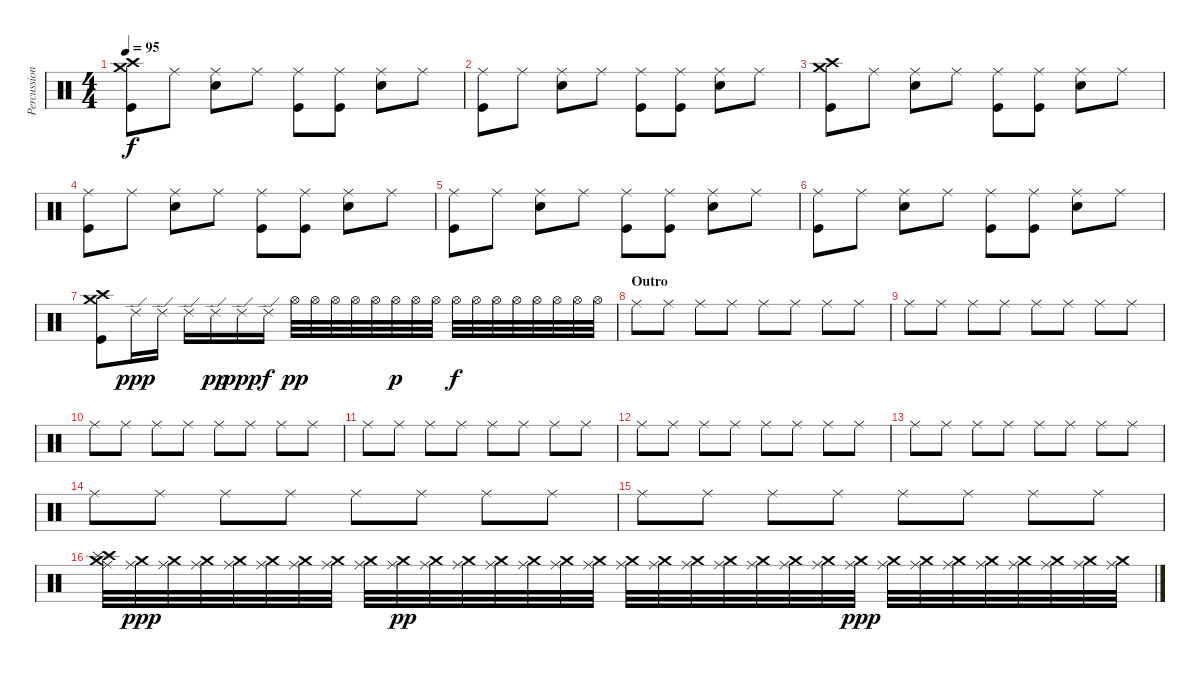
\track ("Percussion" "Percussion") {instrument percussion}
\staff {score}
\articulation defaults
\ts (4 4)
\tempo 95
\clef neutral
\ks c
("Crash high (hit)" "Crash medium (hit)" "Kick (hit)").8{dy f} "Ride (middle)".8 ("Ride (middle)" "Electric Snare (hit)").8 "Ride (middle)".8 ("Ride (middle)" "Kick (hit)").8 ("Ride (middle)" "Kick (hit)").8 ("Ride (middle)" "Electric Snare (hit)").8 "Ride (middle)".8 |
("Ride (middle)" "Kick (hit)").8 "Ride (middle)".8 ("Ride (middle)" "Electric Snare (hit)").8 "Ride (middle)".8 ("Ride (middle)" "Kick (hit)").8 ("Ride (middle)" "Kick (hit)").8 ("Ride (middle)" "Electric Snare (hit)").8 "Ride (middle)".8 |
("Crash high (hit)" "Crash medium (hit)" "Kick (hit)").8 "Ride (middle)".8 ("Ride (middle)" "Electric Snare (hit)").8 "Ride (middle)".8 ("Ride (middle)" "Kick (hit)").8 ("Ride (middle)" "Kick (hit)").8 ("Ride (middle)" "Electric Snare (hit)").8 "Ride (middle)".8 |
("Ride (middle)" "Kick (hit)").8 "Ride (middle)".8 ("Ride (middle)" "Electric Snare (hit)").8 "Ride (middle)".8 ("Ride (middle)" "Kick (hit)").8 ("Ride (middle)" "Kick (hit)").8 ("Ride (middle)" "Electric Snare (hit)").8 "Ride (middle)".8 |
("Ride (middle)" "Kick (hit)").8 "Ride (middle)".8 ("Ride (middle)" "Electric Snare (hit)").8 "Ride (middle)".8 ("Ride (middle)" "Kick (hit)").8 ("Ride (middle)" "Kick (hit)").8 ("Ride (middle)" "Electric Snare (hit)").8 "Ride (middle)".8 |
("Ride (middle)" "Kick (hit)").8 "Ride (middle)".8 ("Ride (middle)" "Electric Snare (hit)").8 "Ride (middle)".8 ("Ride (middle)" "Kick (hit)").8 ("Ride (middle)" "Kick (hit)").8 ("Ride (middle)" "Electric Snare (hit)").8 "Ride (middle)".8 |
("Crash high (hit)" "Crash medium (hit)" "Kick (hit)").8 "Ride (edge) 2".16{dy ppp} "Ride (edge) 2".16 "Ride (edge) 2".16 "Ride (edge) 2".16{dy pp} "Ride (edge) 2".16{dy ppp} "Ride (edge) 2".16{dy f} "Hi-Hat (open)".32{dy pp} "Hi-Hat (open)".32 "Hi-Hat (open)".32 "Hi-Hat (open)".32 "Hi-Hat (open)".32 "Hi-Hat (open)".32{dy p} "Hi-Hat (open)".32 "Hi-Hat (open)".32 "Hi-Hat (open)".32{dy f} "Hi-Hat (open)".32 "Hi-Hat (open)".32 "Hi-Hat (open)".32 "Hi-Hat (open)".32 "Hi-Hat (open)".32 "Hi-Hat (open)".32 "Hi-Hat (open)".32 |
\section ("" "Outro")
"Ride (middle)".8 "Ride (middle)".8 "Ride (middle)".8 "Ride (middle)".8 "Ride (middle)".8 "Ride (middle)".8 "Ride (middle)".8 "Ride (middle)".8 |
"Ride (middle)".8 "Ride (middle)".8 "Ride (middle)".8 "Ride (middle)".8 "Ride (middle)".8 "Ride (middle)".8 "Ride (middle)".8 "Ride (middle)".8 |
"Ride (middle)".8 "Ride (middle)".8 "Ride (middle)".8 "Ride (middle)".8 "Ride (middle)".8 "Ride (middle)".8 "Ride (middle)".8 "Ride (middle)".8 |
"Ride (middle)".8 "Ride (middle)".8 "Ride (middle)".8 "Ride (middle)".8 "Ride (middle)".8 "Ride (middle)".8 "Ride (middle)".8 "Ride (middle)".8 |
"Ride (middle)".8 "Ride (middle)".8 "Ride (middle)".8 "Ride (middle)".8 "Ride (middle)".8 "Ride (middle)".8 "Ride (middle)".8 "Ride (middle)".8 |
"Ride (middle)".8 "Ride (middle)".8 "Ride (middle)".8 "Ride (middle)".8 "Ride (middle)".8 "Ride (middle)".8 "Ride (middle)".8 "Ride (middle)".8 |
"Ride (middle)".8 "Ride (middle)".8 "Ride (middle)".8 "Ride (middle)".8 "Ride (middle)".8 "Ride (middle)".8 "Ride (middle)".8 "Ride (middle)".8 |
"Ride (middle)".8 "Ride (middle)".8 "Ride (middle)".8 "Ride (middle)".8 "Ride (middle)".8 "Ride (middle)".8 "Ride (middle)".8 "Ride (middle)".8 |
("Crash high (hit)" "Crash medium (hit)" "Splash (hit)" "Ride (middle)").32 ("Ride (middle)" "Crash medium (hit)").32{dy ppp} ("Ride (middle)" "Crash medium (hit)").32 ("Ride (middle)" "Crash medium (hit)").32 ("Ride (middle)" "Crash medium (hit)").32 ("Ride (middle)" "Crash medium (hit)").32 ("Ride (middle)" "Crash medium (hit)").32 ("Ride (middle)" "Crash medium (hit)").32 ("Ride (middle)" "Crash medium (hit)").32 ("Ride (middle)" "Crash medium (hit)").32{dy pp} ("Ride (middle)" "Crash medium (hit)").32 ("Ride (middle)" "Crash medium (hit)").32 ("Ride (middle)" "Crash medium (hit)").32 ("Ride (middle)" "Crash medium (hit)").32 ("Ride (middle)" "Crash medium (hit)").32 ("Ride (middle)" "Crash medium (hit)").32 ("Ride (middle)" "Crash medium (hit)").32 ("Ride (middle)" "Crash medium (hit)").32 ("Ride (middle)" "Crash medium (hit)").32 ("Ride (middle)" "Crash medium (hit)").32 ("Ride (middle)" "Crash medium (hit)").32 ("Ride (middle)" "Crash medium (hit)").32 ("Ride (middle)" "Crash medium (hit)").32 ("Ride (middle)" "Crash medium (hit)").32{dy ppp} ("Ride (middle)" "Crash medium (hit)").32 ("Ride (middle)" "Crash medium (hit)").32 ("Ride (middle)" "Crash medium (hit)").32 ("Ride (middle)" "Crash medium (hit)").32 ("Ride (middle)" "Crash medium (hit)").32 ("Ride (middle)" "Crash medium (hit)").32 ("Ride (middle)" "Crash medium (hit)").32 ("Ride (middle)" "Crash medium (hit)").32
